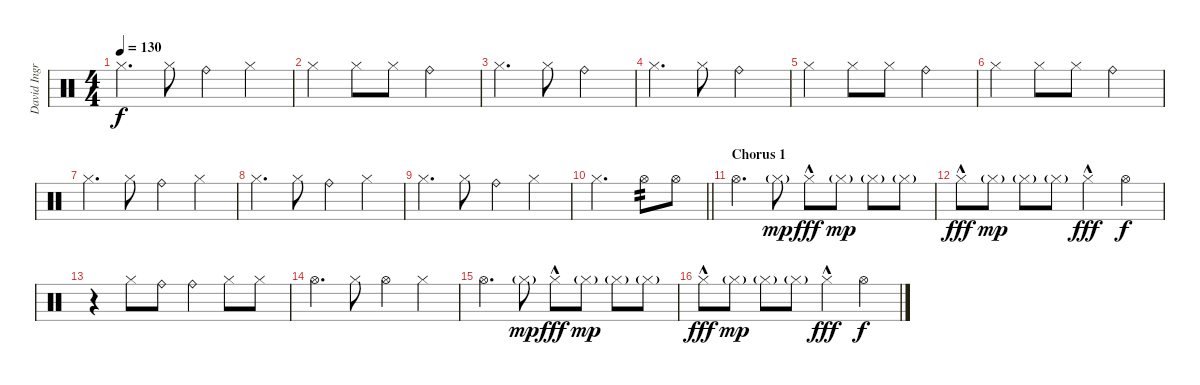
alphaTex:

\track ("David Ingraham" "David Ingr") {instrument percussion}
\staff {score}
\articulation defaults
\ts (4 4)
\tempo 130
\clef neutral
\ks c "Hi-Hat (closed)".4{d dy f} "Hi-Hat (closed)".8 "Ride (bell)".4 "Hi-Hat (closed)".4
|
"Hi-Hat (closed)".4 "Hi-Hat (closed)".8 "Hi-Hat (closed)".8 "Ride (bell)".2 |
"Hi-Hat (closed)".4{d} "Hi-Hat (closed)".8 "Ride (bell)".2 |
"Hi-Hat (closed)".4{d} "Hi-Hat (closed)".8 "Ride (bell)".2 |
"Hi-Hat (closed)".4 "Hi-Hat (closed)".8 "Hi-Hat (closed)".8 "Ride (bell)".2 |
"Hi-Hat (closed)".4 "Hi-Hat (closed)".8 "Hi-Hat (closed)".8 "Ride (bell)".2 |
"Hi-Hat (closed)".4{d} "Hi-Hat (closed)".8 "Ride (bell)".4 "Hi-Hat (closed)".4 |
"Hi-Hat (closed)".4{d} "Hi-Hat (closed)".8 "Ride (bell)".4 "Hi-Hat (closed)".4 |
"Hi-Hat (closed)".4{d} "Hi-Hat (closed)".8 "Ride (bell)".4 "Hi-Hat (closed)".4 |
\barLineRight lightlight "Hi-Hat (closed)".2{d} "Hi-Hat (open)".8{tp 2} "Hi-Hat (open)".8
|
\section ("" "Chorus 1")
"Hi-Hat (open)".4{d} "Hi-Hat (closed)"{g}.8{dy mp} "Hi-Hat (closed)"{hac}.8{dy fff} "Hi-Hat (closed)"{g}.8{dy mp} "Hi-Hat (closed)"{g}.8 "Hi-Hat (closed)"{g}.8 |
"Hi-Hat (closed)"{hac}.8{dy fff} "Hi-Hat (closed)"{g}.8{dy mp} "Hi-Hat (closed)"{g}.8 "Hi-Hat (closed)"{g}.8 "Hi-Hat (closed)"{hac}.4{dy fff} "Hi-Hat (open)".4{dy f} |
r.4 "Hi-Hat (closed)".8 "Ride (bell)".8 "Ride (bell)".4 "Hi-Hat (closed)".8 "Hi-Hat (closed)".8 |
"Hi-Hat (open)".4{d} "Hi-Hat (closed)".8 "Hi-Hat (open)".4 "Hi-Hat (closed)".4 |
"Hi-Hat (open)".4{d} "Hi-Hat (closed)"{g}.8{dy mp} "Hi-Hat (closed)"{hac}.8{dy fff} "Hi-Hat (closed)"{g}.8{dy mp} "Hi-Hat (closed)"{g}.8 "Hi-Hat (closed)"{g}.8 |
"Hi-Hat (closed)"{hac}.8{dy fff} "Hi-Hat (closed)"{g}.8{dy mp} "Hi-Hat (closed)"{g}.8 "Hi-Hat (closed)"{g}.8 "Hi-Hat (closed)"{hac}.4{dy fff} "Hi-Hat (open)".4{dy f}
